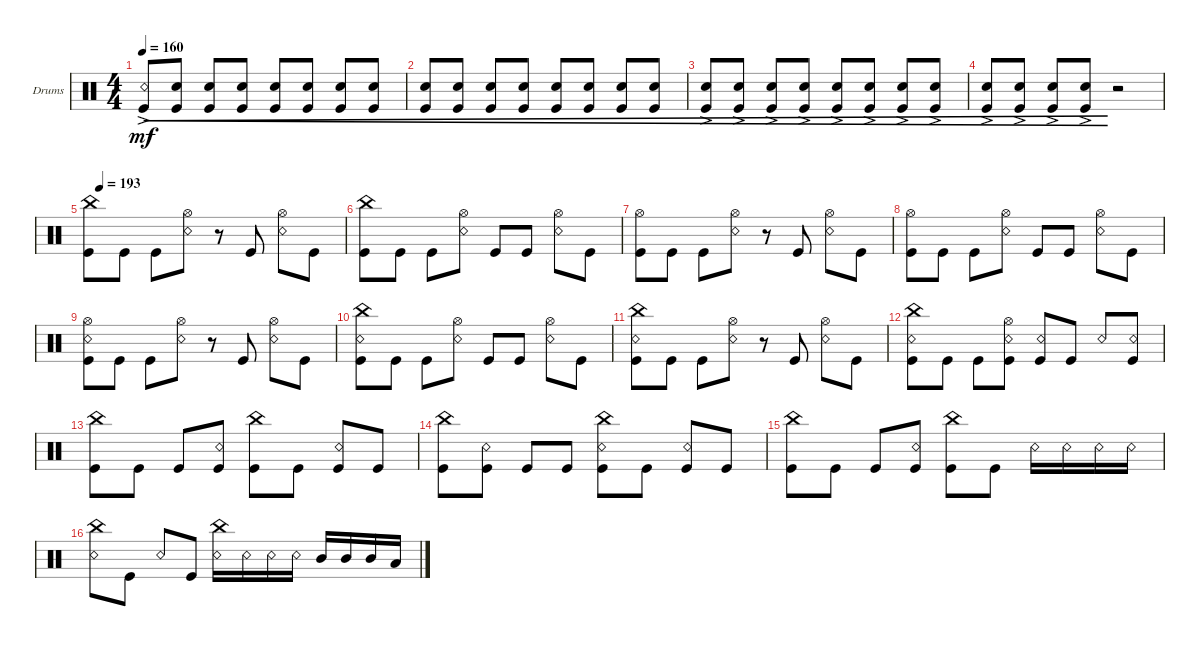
\defaultSystemsLayout 4
\bracketExtendMode groupsimilarinstruments
\firstSystemTrackNameOrientation horizontal
\otherSystemsTrackNameOrientation horizontal
\track ("Drumkit" "Drums") {mute multiBarRest instrument percussion}
\staff {score}
\articulation defaults
\ts (4 4)
\tempo 160
\clef neutral
\ks c
("Snare (rim shot)"{ac} "Kick (hit)").8{cre dy mf} ("Kick (hit)" "Snare (hit) 2").8{cre} ("Kick (hit)" "Snare (hit) 2").8{cre} ("Kick (hit)" "Snare (hit) 2").8{cre} ("Kick (hit)" "Snare (hit) 2").8{cre} ("Kick (hit)" "Snare (hit) 2").8{cre} ("Kick (hit)" "Snare (hit) 2").8{cre} ("Kick (hit)" "Snare (hit) 2").8{cre} |
("Kick (hit)" "Snare (hit) 2").8{cre} ("Kick (hit)" "Snare (hit) 2").8{cre} ("Kick (hit)" "Snare (hit) 2").8{cre} ("Kick (hit)" "Snare (hit) 2").8{cre} ("Kick (hit)" "Snare (hit) 2").8{cre} ("Kick (hit)" "Snare (hit) 2").8{cre} ("Kick (hit)" "Snare (hit) 2").8{cre} ("Kick (hit)" "Snare (hit) 2").8{cre} |
("Kick (hit)"{ac} "Snare (hit) 2"{ac}).8{cre} ("Kick (hit)"{ac} "Snare (hit) 2"{ac}).8{cre} ("Kick (hit)"{ac} "Snare (hit) 2"{ac}).8{cre} ("Kick (hit)"{ac} "Snare (hit) 2"{ac}).8{cre} ("Snare (hit) 2"{ac} "Kick (hit)"{ac}).8{cre} ("Snare (hit) 2"{ac} "Kick (hit)"{ac}).8{cre} ("Snare (hit) 2"{ac} "Kick (hit)"{ac}).8{cre} ("Snare (hit) 2"{ac} "Kick (hit)"{ac}).8{cre} |
("Snare (hit) 2"{ac} "Kick (hit)"{ac}).8{cre} ("Snare (hit) 2"{ac} "Kick (hit)"{ac}).8{cre} ("Snare (hit) 2"{ac} "Kick (hit)"{ac}).8{cre} ("Snare (hit) 2"{ac} "Kick (hit)"{ac}).8{cre} r.2 |
\tempo (193 0.03125)
("Kick (hit)" "China (hit)").8 "Kick (hit)".8 "Kick (hit)".8 ("Snare (rim shot)" "Hi-Hat (open)").8 r.8 "Kick (hit)".8 ("Snare (rim shot)" "Hi-Hat (open)").8 "Kick (hit)".8 |
\scale
0.333333 ("Kick (hit)" "China (hit)").8 "Kick (hit)".8 "Kick (hit)".8 ("Snare (rim shot)" "Hi-Hat (open)").8 "Kick (hit)".8 "Kick (hit)".8 ("Snare (rim shot)" "Hi-Hat (open)").8 "Kick (hit)".8 |
\scale
0.333333 ("Hi-Hat (open)" "Kick (hit)").8 "Kick (hit)".8 "Kick (hit)".8 ("Snare (rim shot)" "Hi-Hat (open)").8 r.8 "Kick (hit)".8 ("Snare (rim shot)" "Hi-Hat (open)").8 "Kick (hit)".8 |
\scale
0.333333 ("Kick (hit)" "Hi-Hat (open)").8 "Kick (hit)".8 "Kick (hit)".8 ("Snare (rim shot)" "Hi-Hat (open)").8 "Kick (hit)".8 "Kick (hit)".8 ("Snare (rim shot)" "Hi-Hat (open)").8 "Kick (hit)".8 |
\scale
0.333333 ("Hi-Hat (open)" "Kick (hit)" "Snare (rim shot)").8 "Kick (hit)".8 "Kick (hit)".8 ("Snare (rim shot)" "Hi-Hat (open)").8 r.8 "Kick (hit)".8 ("Snare (rim shot)" "Hi-Hat (open)").8 "Kick (hit)".8 |
\scale
0.333333 ("Kick (hit)" "Snare (rim shot)" "China (hit)").8 "Kick (hit)".8 "Kick (hit)".8 ("Snare (rim shot)" "Hi-Hat (open)").8 "Kick (hit)".8 "Kick (hit)".8 ("Snare (rim shot)" "Hi-Hat (open)").8 "Kick (hit)".8 |
\scale
0.333333 ("Kick (hit)" "China (hit)" "Snare (rim shot)").8 "Kick (hit)".8 "Kick (hit)".8 ("Snare (rim shot)" "Hi-Hat (open)").8 r.8 "Kick (hit)".8 ("Snare (rim shot)" "Hi-Hat (open)").8 "Kick (hit)".8 |
\scale
0.333333 ("Kick (hit)" "Snare (rim shot)" "China (hit)").8 "Kick (hit)".8 "Kick (hit)".8 ("Hi-Hat (open)" "Kick (hit)" "Snare (rim shot)").8 ("Kick (hit)" "Snare (rim shot)").8 "Kick (hit)".8 "Snare (rim shot)".8 ("Kick (hit)" "Snare (rim shot)").8 |
\scale
0.333333 ("Kick (hit)" "China (hit)").8 "Kick (hit)".8 "Kick (hit)".8 ("Kick (hit)" "Snare (rim shot)").8 ("Kick (hit)" "China (hit)").8 "Kick (hit)".8 ("Kick (hit)" "Snare (rim shot)").8 "Kick (hit)".8 |
\scale
0.333333 ("Kick (hit)" "China (hit)").8 ("Snare (rim shot)" "Kick (hit)").8 "Kick (hit)".8 "Kick (hit)".8 ("Kick (hit)" "Snare (rim shot)" "China (hit)").8 "Kick (hit)".8 ("Kick (hit)" "Snare (rim shot)").8 "Kick (hit)".8 |
\scale
0.333333 ("Kick (hit)" "China (hit)").8 "Kick (hit)".8 "Kick (hit)".8 ("Kick (hit)" "Snare (rim shot)").8 ("Kick (hit)" "China (hit)").8 "Kick (hit)".8 "Snare (rim shot)".16 "Snare (rim shot)".16 "Snare (rim shot)".16 "Snare (rim shot)".16 |
\scale
0.333333 ("China (hit)" "Snare (rim shot)").8 "Kick (hit)".8 "Snare (rim shot)".8 "Kick (hit)".8 ("Snare (rim shot)" "China (hit)").16 "Snare (rim shot)".16 "Snare (rim shot)".16 "Snare (rim shot)".16 "Mid Tom (hit)".16 "Mid Tom (hit)".16 "Mid Tom (hit)".16 "Low Tom (hit)".16
